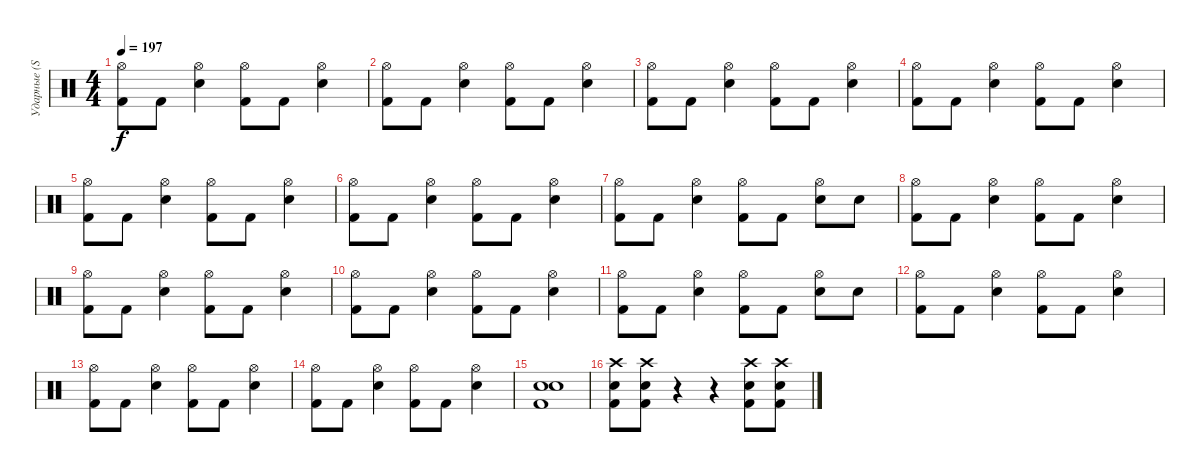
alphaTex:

\track ("Ударные (Stevo32)" "Ударные (S") {instrument percussion}
\staff {score}
\articulation defaults
\ts (4 4)
\tempo 197
\clef neutral
\ks c
("Hi-Hat (open)" "Kick (hit) 2").8{dy f} "Kick (hit) 2".8 ("Hi-Hat (open)" "Snare (hit) 2").4 ("Hi-Hat (open)" "Kick (hit) 2").8 "Kick (hit) 2".8 ("Hi-Hat (open)" "Snare (hit) 2").4 |
("Hi-Hat (open)" "Kick (hit) 2").8 "Kick (hit) 2".8 ("Hi-Hat (open)" "Snare (hit) 2").4 ("Hi-Hat (open)" "Kick (hit) 2").8 "Kick (hit) 2".8 ("Hi-Hat (open)" "Snare (hit) 2").4 |
("Hi-Hat (open)" "Kick (hit) 2").8 "Kick (hit) 2".8 ("Hi-Hat (open)" "Snare (hit) 2").4 ("Hi-Hat (open)" "Kick (hit) 2").8 "Kick (hit) 2".8 ("Hi-Hat (open)" "Snare (hit) 2").4 |
("Hi-Hat (open)" "Kick (hit) 2").8 "Kick (hit) 2".8 ("Hi-Hat (open)" "Snare (hit) 2").4 ("Hi-Hat (open)" "Kick (hit) 2").8 "Kick (hit) 2".8 ("Hi-Hat (open)" "Snare (hit) 2").4 |
("Hi-Hat (open)" "Kick (hit) 2").8 "Kick (hit) 2".8 ("Hi-Hat (open)" "Snare (hit) 2").4 ("Hi-Hat (open)" "Kick (hit) 2").8 "Kick (hit) 2".8 ("Hi-Hat (open)" "Snare (hit) 2").4 |
("Hi-Hat (open)" "Kick (hit) 2").8 "Kick (hit) 2".8 ("Hi-Hat (open)" "Snare (hit) 2").4 ("Hi-Hat (open)" "Kick (hit) 2").8 "Kick (hit) 2".8 ("Hi-Hat (open)" "Snare (hit) 2").4 |
("Hi-Hat (open)" "Kick (hit) 2").8 "Kick (hit) 2".8 ("Hi-Hat (open)" "Snare (hit) 2").4 ("Hi-Hat (open)" "Kick (hit) 2").8 "Kick (hit) 2".8 ("Hi-Hat (open)" "Snare (hit) 2").8 "Snare (hit) 2".8 |
("Hi-Hat (open)" "Kick (hit) 2").8 "Kick (hit) 2".8 ("Hi-Hat (open)" "Snare (hit) 2").4 ("Hi-Hat (open)" "Kick (hit) 2").8 "Kick (hit) 2".8 ("Hi-Hat (open)" "Snare (hit) 2").4 |
("Hi-Hat (open)" "Kick (hit) 2").8 "Kick (hit) 2".8 ("Hi-Hat (open)" "Snare (hit) 2").4 ("Hi-Hat (open)" "Kick (hit) 2").8 "Kick (hit) 2".8 ("Hi-Hat (open)" "Snare (hit) 2").4 |
("Hi-Hat (open)" "Kick (hit) 2").8 "Kick (hit) 2".8 ("Hi-Hat (open)" "Snare (hit) 2").4 ("Hi-Hat (open)" "Kick (hit) 2").8 "Kick (hit) 2".8 ("Hi-Hat (open)" "Snare (hit) 2").4 |
("Hi-Hat (open)" "Kick (hit) 2").8 "Kick (hit) 2".8 ("Hi-Hat (open)" "Snare (hit) 2").4 ("Hi-Hat (open)" "Kick (hit) 2").8 "Kick (hit) 2".8 ("Hi-Hat (open)" "Snare (hit) 2").8 "Snare (hit) 2".8 |
("Hi-Hat (open)" "Kick (hit) 2").8 "Kick (hit) 2".8 ("Hi-Hat (open)" "Snare (hit) 2").4 ("Hi-Hat (open)" "Kick (hit) 2").8 "Kick (hit) 2".8 ("Hi-Hat (open)" "Snare (hit) 2").4 |
("Hi-Hat (open)" "Kick (hit) 2").8 "Kick (hit) 2".8 ("Hi-Hat (open)" "Snare (hit) 2").4 ("Hi-Hat (open)" "Kick (hit) 2").8 "Kick (hit) 2".8 ("Hi-Hat (open)" "Snare (hit) 2").4 |
("Hi-Hat (open)" "Kick (hit) 2").8 "Kick (hit) 2".8 ("Hi-Hat (open)" "Snare (hit) 2").4 ("Hi-Hat (open)" "Kick (hit) 2").8 "Kick (hit) 2".8 ("Hi-Hat (open)" "Snare (hit) 2").4 |
("Electric Snare (hit)" "Snare (hit) 2" "Kick (hit) 2").1 |
("Crash high (hit)" "Snare (hit) 2" "Kick (hit) 2").8 ("Crash high (hit)" "Snare (hit) 2" "Kick (hit) 2").8 r.4 r.4 ("Crash high (hit)" "Snare (hit) 2" "Kick (hit) 2").8 ("Crash high (hit)" "Snare (hit) 2" "Kick (hit) 2").8
